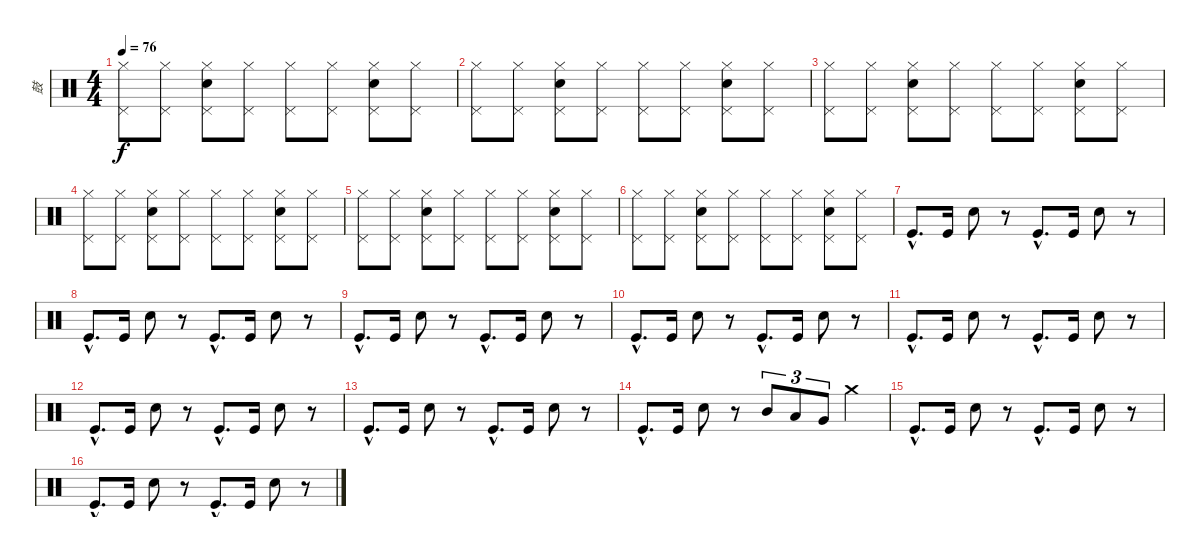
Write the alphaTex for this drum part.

\track ("鼓" "鼓") {instrument percussion}
\staff {score}
\articulation defaults
\ts (4 4)
\tempo 76
\clef neutral
\ks c
("Pedal Hi-Hat (hit)" "Hi-Hat (closed)").8{dy f} ("Pedal Hi-Hat (hit)" "Hi-Hat (closed)").8 ("Pedal Hi-Hat (hit)" "Electric Snare (hit)" "Hi-Hat (closed)").8 ("Pedal Hi-Hat (hit)" "Hi-Hat (closed)").8 ("Pedal Hi-Hat (hit)" "Hi-Hat (closed)").8 ("Pedal Hi-Hat (hit)" "Hi-Hat (closed)").8 ("Pedal Hi-Hat (hit)" "Electric Snare (hit)" "Hi-Hat (closed)").8 ("Pedal Hi-Hat (hit)" "Hi-Hat (closed)").8 |
("Pedal Hi-Hat (hit)" "Hi-Hat (closed)").8 ("Pedal Hi-Hat (hit)" "Hi-Hat (closed)").8 ("Pedal Hi-Hat (hit)" "Electric Snare (hit)" "Hi-Hat (closed)").8 ("Pedal Hi-Hat (hit)" "Hi-Hat (closed)").8 ("Pedal Hi-Hat (hit)" "Hi-Hat (closed)").8 ("Pedal Hi-Hat (hit)" "Hi-Hat (closed)").8 ("Pedal Hi-Hat (hit)" "Electric Snare (hit)" "Hi-Hat (closed)").8 ("Pedal Hi-Hat (hit)" "Hi-Hat (closed)").8 |
("Pedal Hi-Hat (hit)" "Hi-Hat (closed)").8 ("Pedal Hi-Hat (hit)" "Hi-Hat (closed)").8 ("Pedal Hi-Hat (hit)" "Electric Snare (hit)" "Hi-Hat (closed)").8 ("Pedal Hi-Hat (hit)" "Hi-Hat (closed)").8 ("Pedal Hi-Hat (hit)" "Hi-Hat (closed)").8 ("Pedal Hi-Hat (hit)" "Hi-Hat (closed)").8 ("Pedal Hi-Hat (hit)" "Electric Snare (hit)" "Hi-Hat (closed)").8 ("Pedal Hi-Hat (hit)" "Hi-Hat (closed)").8 |
("Pedal Hi-Hat (hit)" "Hi-Hat (closed)").8 ("Pedal Hi-Hat (hit)" "Hi-Hat (closed)").8 ("Pedal Hi-Hat (hit)" "Electric Snare (hit)" "Hi-Hat (closed)").8 ("Pedal Hi-Hat (hit)" "Hi-Hat (closed)").8 ("Pedal Hi-Hat (hit)" "Hi-Hat (closed)").8 ("Pedal Hi-Hat (hit)" "Hi-Hat (closed)").8 ("Pedal Hi-Hat (hit)" "Electric Snare (hit)" "Hi-Hat (closed)").8 ("Pedal Hi-Hat (hit)" "Hi-Hat (closed)").8 |
("Pedal Hi-Hat (hit)" "Hi-Hat (closed)").8 ("Pedal Hi-Hat (hit)" "Hi-Hat (closed)").8 ("Pedal Hi-Hat (hit)" "Electric Snare (hit)" "Hi-Hat (closed)").8 ("Pedal Hi-Hat (hit)" "Hi-Hat (closed)").8 ("Pedal Hi-Hat (hit)" "Hi-Hat (closed)").8 ("Pedal Hi-Hat (hit)" "Hi-Hat (closed)").8 ("Pedal Hi-Hat (hit)" "Electric Snare (hit)" "Hi-Hat (closed)").8 ("Pedal Hi-Hat (hit)" "Hi-Hat (closed)").8 |
("Pedal Hi-Hat (hit)" "Hi-Hat (closed)").8 ("Pedal Hi-Hat (hit)" "Hi-Hat (closed)").8 ("Pedal Hi-Hat (hit)" "Electric Snare (hit)" "Hi-Hat (closed)").8 ("Pedal Hi-Hat (hit)" "Hi-Hat (closed)").8 ("Pedal Hi-Hat (hit)" "Hi-Hat (closed)").8 ("Pedal Hi-Hat (hit)" "Hi-Hat (closed)").8 ("Pedal Hi-Hat (hit)" "Electric Snare (hit)" "Hi-Hat (closed)").8 ("Pedal Hi-Hat (hit)" "Hi-Hat (closed)").8 |
"Kick (hit)"{hac}.8{d} "Kick (hit)".16 "Electric Snare (hit)".8 r.8 "Kick (hit)"{hac}.8{d} "Kick (hit)".16 "Electric Snare (hit)".8 r.8 |
"Kick (hit)"{hac}.8{d} "Kick (hit)".16 "Electric Snare (hit)".8 r.8 "Kick (hit)"{hac}.8{d} "Kick (hit)".16 "Electric Snare (hit)".8 r.8 |
"Kick (hit)"{hac}.8{d} "Kick (hit)".16 "Electric Snare (hit)".8 r.8 "Kick (hit)"{hac}.8{d} "Kick (hit)".16 "Electric Snare (hit)".8 r.8 |
"Kick (hit)"{hac}.8{d} "Kick (hit)".16 "Electric Snare (hit)".8 r.8 "Kick (hit)"{hac}.8{d} "Kick (hit)".16 "Electric Snare (hit)".8 r.8 |
"Kick (hit)"{hac}.8{d} "Kick (hit)".16 "Electric Snare (hit)".8 r.8 "Kick (hit)"{hac}.8{d} "Kick (hit)".16 "Electric Snare (hit)".8 r.8 |
"Kick (hit)"{hac}.8{d} "Kick (hit)".16 "Electric Snare (hit)".8 r.8 "Kick (hit)"{hac}.8{d} "Kick (hit)".16 "Electric Snare (hit)".8 r.8 |
"Kick (hit)"{hac}.8{d} "Kick (hit)".16 "Electric Snare (hit)".8 r.8 "Kick (hit)"{hac}.8{d} "Kick (hit)".16 "Electric Snare (hit)".8 r.8 |
"Kick (hit)"{hac}.8{d} "Kick (hit)".16 "Electric Snare (hit)".8 r.8 "Mid Tom (hit)".8{tu (3 2)} "Low Tom (hit)".8{tu (3 2)} "Very Low Tom (hit)".8{tu (3 2)} "Crash medium (hit)".4 |
"Kick (hit)"{hac}.8{d} "Kick (hit)".16 "Electric Snare (hit)".8 r.8 "Kick (hit)"{hac}.8{d} "Kick (hit)".16 "Electric Snare (hit)".8 r.8 |
"Kick (hit)"{hac}.8{d} "Kick (hit)".16 "Electric Snare (hit)".8 r.8 "Kick (hit)"{hac}.8{d} "Kick (hit)".16 "Electric Snare (hit)".8 r.8
